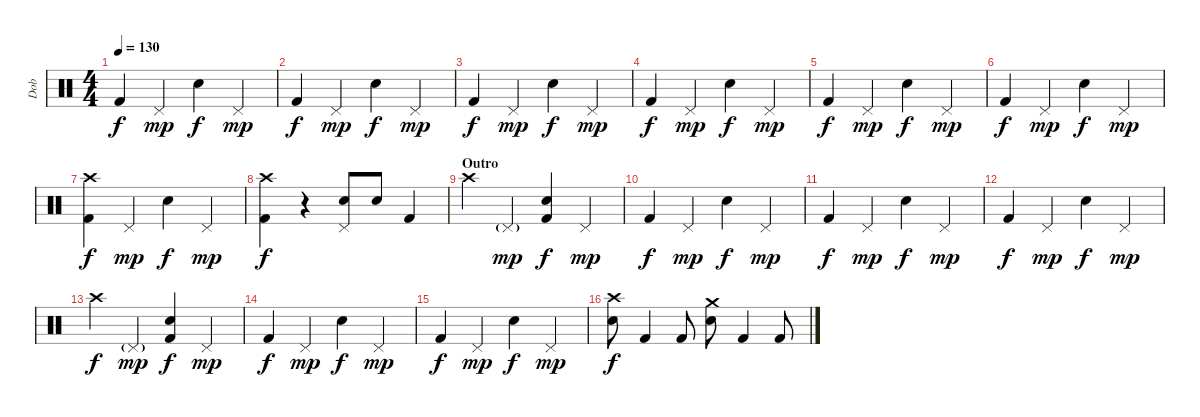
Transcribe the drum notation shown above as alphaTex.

\track ("Dob" "Dob") {instrument percussion}
\staff {score}
\articulation defaults
\ts (4 4)
\tempo 130
\clef neutral
\ks c "Kick (hit) 2".4{dy f} "Pedal Hi-Hat (hit)".4{dy mp} "Snare (hit) 2".4{dy f} "Pedal Hi-Hat (hit)".4{dy mp}
|
"Kick (hit) 2".4{dy f} "Pedal Hi-Hat (hit)".4{dy mp} "Snare (hit) 2".4{dy f} "Pedal Hi-Hat (hit)".4{dy mp} |
"Kick (hit) 2".4{dy f} "Pedal Hi-Hat (hit)".4{dy mp} "Snare (hit) 2".4{dy f} "Pedal Hi-Hat (hit)".4{dy mp} |
"Kick (hit) 2".4{dy f} "Pedal Hi-Hat (hit)".4{dy mp} "Snare (hit) 2".4{dy f} "Pedal Hi-Hat (hit)".4{dy mp} |
"Kick (hit) 2".4{dy f} "Pedal Hi-Hat (hit)".4{dy mp} "Snare (hit) 2".4{dy f} "Pedal Hi-Hat (hit)".4{dy mp} |
"Kick (hit) 2".4{dy f} "Pedal Hi-Hat (hit)".4{dy mp} "Snare (hit) 2".4{dy f} "Pedal Hi-Hat (hit)".4{dy mp} |
("Crash high (hit)" "Kick (hit) 2").4{dy f} "Pedal Hi-Hat (hit)".4{dy mp} "Snare (hit) 2".4{dy f} "Pedal Hi-Hat (hit)".4{dy mp} |
("Crash high (hit)" "Kick (hit) 2").4{dy f} r.4 ("Pedal Hi-Hat (hit)" "Snare (hit) 2").8 "Snare (hit) 2".8 "Kick (hit) 2".4 |
\section ("" "Outro")
"Crash high (hit)".4 "Pedal Hi-Hat (hit)"{g}.4{dy mp} ("Kick (hit) 2" "Snare (hit) 2").4{dy f} "Pedal Hi-Hat (hit)".4{dy mp} |
"Kick (hit) 2".4{dy f} "Pedal Hi-Hat (hit)".4{dy mp} "Snare (hit) 2".4{dy f} "Pedal Hi-Hat (hit)".4{dy mp} |
"Kick (hit) 2".4{dy f} "Pedal Hi-Hat (hit)".4{dy mp} "Snare (hit) 2".4{dy f} "Pedal Hi-Hat (hit)".4{dy mp} |
"Kick (hit) 2".4{dy f} "Pedal Hi-Hat (hit)".4{dy mp} "Snare (hit) 2".4{dy f} "Pedal Hi-Hat (hit)".4{dy mp} |
"Crash high (hit)".4{dy f} "Pedal Hi-Hat (hit)"{g}.4{dy mp} ("Kick (hit) 2" "Snare (hit) 2").4{dy f} "Pedal Hi-Hat (hit)".4{dy mp} |
"Kick (hit) 2".4{dy f} "Pedal Hi-Hat (hit)".4{dy mp} "Snare (hit) 2".4{dy f} "Pedal Hi-Hat (hit)".4{dy mp} |
"Kick (hit) 2".4{dy f} "Pedal Hi-Hat (hit)".4{dy mp} "Snare (hit) 2".4{dy f} "Pedal Hi-Hat (hit)".4{dy mp} |
("Crash high (hit)" "Snare (hit) 2").8{dy f} "Kick (hit) 2".4 "Kick (hit) 2".8 ("Crash medium (hit)" "Snare (hit) 2").8 "Kick (hit) 2".4 "Kick (hit) 2".8
